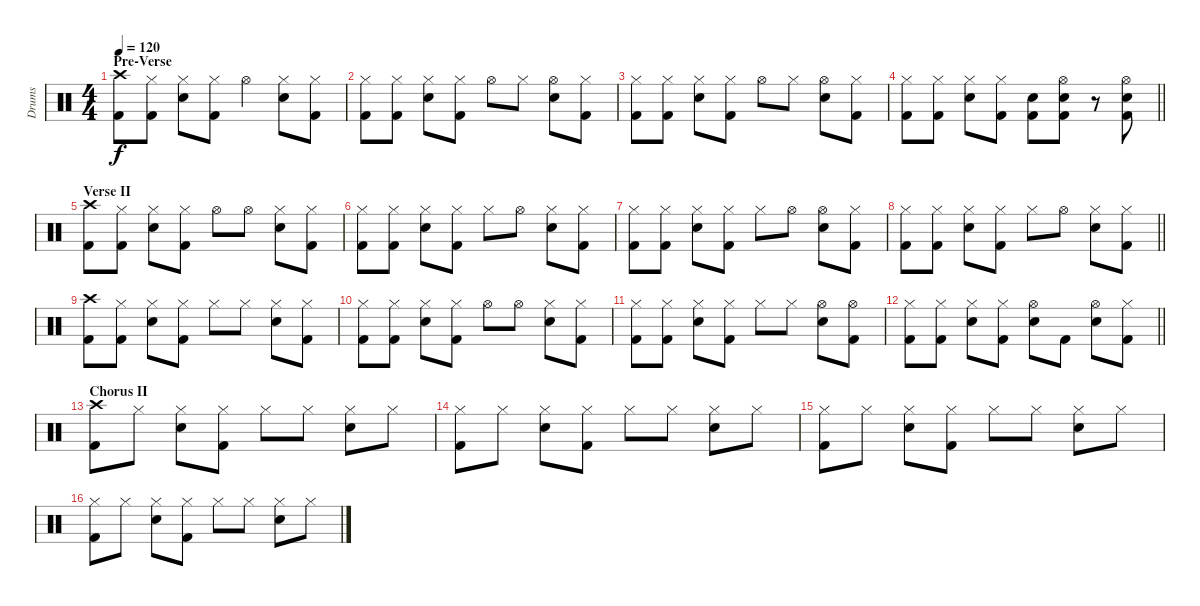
\track ("Drums" "Drums") {instrument percussion}
\staff {score}
\articulation defaults
\ts (4 4)
\section ("" "Pre-Verse")
\tempo 120
\clef neutral
\ks c
("Crash high (hit)" "Kick (hit) 2").8{dy f} ("Hi-Hat (closed)" "Kick (hit) 2").8 ("Hi-Hat (closed)" "Electric Snare (hit)").8 ("Hi-Hat (closed)" "Kick (hit) 2").8 "Hi-Hat (open)".4 ("Hi-Hat (closed)" "Electric Snare (hit)").8 ("Hi-Hat (closed)" "Kick (hit) 2").8 |
("Hi-Hat (closed)" "Kick (hit) 2").8 ("Hi-Hat (closed)" "Kick (hit) 2").8 ("Hi-Hat (closed)" "Electric Snare (hit)").8 ("Hi-Hat (closed)" "Kick (hit) 2").8 "Hi-Hat (open)".8 "Hi-Hat (closed)".8 ("Hi-Hat (open)" "Electric Snare (hit)").8 ("Hi-Hat (closed)" "Kick (hit) 2").8 |
("Hi-Hat (closed)" "Kick (hit) 2").8 ("Hi-Hat (closed)" "Kick (hit) 2").8 ("Hi-Hat (closed)" "Electric Snare (hit)").8 ("Hi-Hat (closed)" "Kick (hit) 2").8 "Hi-Hat (open)".8 "Hi-Hat (closed)".8 ("Hi-Hat (open)" "Electric Snare (hit)").8 ("Hi-Hat (closed)" "Kick (hit) 2").8 |
\barLineRight lightlight
("Hi-Hat (closed)" "Kick (hit) 2").8 ("Hi-Hat (closed)" "Kick (hit) 2").8 ("Hi-Hat (closed)" "Electric Snare (hit)").8 ("Hi-Hat (closed)" "Kick (hit) 2").8 ("Electric Snare (hit)" "Kick (hit) 2").8 ("Hi-Hat (open)" "Electric Snare (hit)" "Kick (hit) 2").8 r.8 ("Hi-Hat (open)" "Electric Snare (hit)" "Kick (hit) 2").8 |
\section ("" "Verse II")
("Crash high (hit)" "Kick (hit) 2").8 ("Hi-Hat (closed)" "Kick (hit) 2").8 ("Hi-Hat (closed)" "Electric Snare (hit)").8 ("Hi-Hat (closed)" "Kick (hit) 2").8 "Hi-Hat (open)".8 "Hi-Hat (open)".8 ("Hi-Hat (closed)" "Electric Snare (hit)").8 ("Hi-Hat (closed)" "Kick (hit) 2").8 |
("Hi-Hat (closed)" "Kick (hit) 2").8 ("Hi-Hat (closed)" "Kick (hit) 2").8 ("Hi-Hat (closed)" "Electric Snare (hit)").8 ("Hi-Hat (closed)" "Kick (hit) 2").8 "Hi-Hat (closed)".8 "Hi-Hat (open)".8 ("Hi-Hat (closed)" "Electric Snare (hit)").8 ("Hi-Hat (closed)" "Kick (hit) 2").8 |
("Hi-Hat (closed)" "Kick (hit) 2").8 ("Hi-Hat (closed)" "Kick (hit) 2").8 ("Hi-Hat (closed)" "Electric Snare (hit)").8 ("Hi-Hat (closed)" "Kick (hit) 2").8 "Hi-Hat (closed)".8 "Hi-Hat (open)".8 ("Hi-Hat (open)" "Electric Snare (hit)").8 ("Hi-Hat (closed)" "Kick (hit) 2").8 |
\barLineRight lightlight
("Hi-Hat (closed)" "Kick (hit) 2").8 ("Hi-Hat (closed)" "Kick (hit) 2").8 ("Hi-Hat (closed)" "Electric Snare (hit)").8 ("Hi-Hat (closed)" "Kick (hit) 2").8 "Hi-Hat (closed)".8 "Hi-Hat (open)".8 ("Hi-Hat (closed)" "Electric Snare (hit)").8 ("Hi-Hat (closed)" "Kick (hit) 2").8 |
("Crash high (hit)" "Kick (hit) 2").8 ("Hi-Hat (closed)" "Kick (hit) 2").8 ("Hi-Hat (closed)" "Electric Snare (hit)").8 ("Hi-Hat (closed)" "Kick (hit) 2").8 "Hi-Hat (closed)".8 "Hi-Hat (closed)".8 ("Hi-Hat (closed)" "Electric Snare (hit)").8 ("Hi-Hat (closed)" "Kick (hit) 2").8 |
("Hi-Hat (closed)" "Kick (hit) 2").8 ("Hi-Hat (closed)" "Kick (hit) 2").8 ("Hi-Hat (closed)" "Electric Snare (hit)").8 ("Hi-Hat (closed)" "Kick (hit) 2").8 "Hi-Hat (open)".8 "Hi-Hat (open)".8 ("Hi-Hat (closed)" "Electric Snare (hit)").8 ("Hi-Hat (closed)" "Kick (hit) 2").8 |
("Hi-Hat (closed)" "Kick (hit) 2").8 ("Hi-Hat (closed)" "Kick (hit) 2").8 ("Hi-Hat (closed)" "Electric Snare (hit)").8 ("Hi-Hat (closed)" "Kick (hit) 2").8 "Hi-Hat (closed)".8 "Hi-Hat (closed)".8 ("Hi-Hat (open)" "Electric Snare (hit)").8 ("Hi-Hat (open)" "Kick (hit) 2").8 |
\barLineRight lightlight
("Hi-Hat (closed)" "Kick (hit) 2").8 ("Hi-Hat (closed)" "Kick (hit) 2").8 ("Hi-Hat (closed)" "Electric Snare (hit)").8 ("Hi-Hat (closed)" "Kick (hit) 2").8 ("Hi-Hat (open)" "Electric Snare (hit)").8 "Kick (hit) 2".8 ("Hi-Hat (open)" "Electric Snare (hit)").8 ("Hi-Hat (closed)" "Kick (hit) 2").8 |
\section ("" "Chorus II")
("Crash high (hit)" "Kick (hit) 2").8 "Hi-Hat (closed)".8 ("Hi-Hat (closed)" "Electric Snare (hit)").8 ("Hi-Hat (closed)" "Kick (hit) 2").8 "Hi-Hat (closed)".8 "Hi-Hat (closed)".8 ("Hi-Hat (closed)" "Electric Snare (hit)").8 "Hi-Hat (closed)".8 |
("Hi-Hat (closed)" "Kick (hit) 2").8 "Hi-Hat (closed)".8 ("Hi-Hat (closed)" "Electric Snare (hit)").8 ("Hi-Hat (closed)" "Kick (hit) 2").8 "Hi-Hat (closed)".8 "Hi-Hat (closed)".8 ("Hi-Hat (closed)" "Electric Snare (hit)").8 "Hi-Hat (closed)".8 |
("Hi-Hat (closed)" "Kick (hit) 2").8 "Hi-Hat (closed)".8 ("Hi-Hat (closed)" "Electric Snare (hit)").8 ("Hi-Hat (closed)" "Kick (hit) 2").8 "Hi-Hat (closed)".8 "Hi-Hat (closed)".8 ("Hi-Hat (closed)" "Electric Snare (hit)").8 "Hi-Hat (closed)".8 |
("Hi-Hat (closed)" "Kick (hit) 2").8 "Hi-Hat (closed)".8 ("Hi-Hat (closed)" "Electric Snare (hit)").8 ("Hi-Hat (closed)" "Kick (hit) 2").8 "Hi-Hat (closed)".8 "Hi-Hat (closed)".8 ("Hi-Hat (closed)" "Electric Snare (hit)").8 "Hi-Hat (closed)".8
